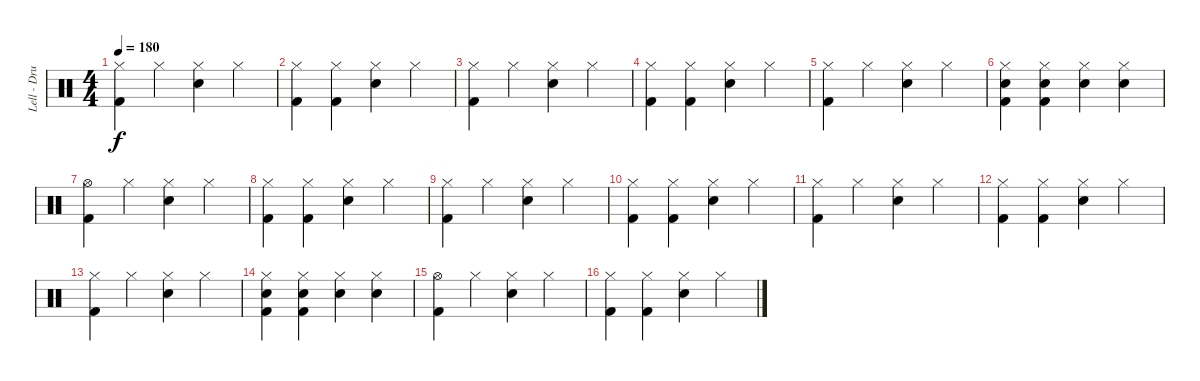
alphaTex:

\track ("Lell - Drums" "Lell - Dru") {instrument percussion}
\staff {score}
\articulation defaults
\ts (4 4)
\tempo 180
\clef neutral
\ks c
("Hi-Hat (closed)" "Kick (hit) 2").4{dy f} "Hi-Hat (closed)".4 ("Hi-Hat (closed)" "Snare (hit) 2").4 "Hi-Hat (closed)".4 |
("Hi-Hat (closed)" "Kick (hit) 2").4 ("Hi-Hat (closed)" "Kick (hit) 2").4 ("Hi-Hat (closed)" "Snare (hit) 2").4 "Hi-Hat (closed)".4 |
("Hi-Hat (closed)" "Kick (hit) 2").4 "Hi-Hat (closed)".4 ("Hi-Hat (closed)" "Snare (hit) 2").4 "Hi-Hat (closed)".4 |
("Hi-Hat (closed)" "Kick (hit) 2").4 ("Hi-Hat (closed)" "Kick (hit) 2").4 ("Hi-Hat (closed)" "Snare (hit) 2").4 "Hi-Hat (closed)".4 |
("Hi-Hat (closed)" "Kick (hit) 2").4 "Hi-Hat (closed)".4 ("Hi-Hat (closed)" "Snare (hit) 2").4 "Hi-Hat (closed)".4 |
("Hi-Hat (closed)" "Snare (hit) 2" "Kick (hit) 2").4 ("Hi-Hat (closed)" "Snare (hit) 2" "Kick (hit) 2").4 ("Hi-Hat (closed)" "Snare (hit) 2").4 ("Hi-Hat (closed)" "Snare (hit) 2").4 |
("Hi-Hat (open)" "Kick (hit) 2").4 "Hi-Hat (closed)".4 ("Hi-Hat (closed)" "Snare (hit) 2").4 "Hi-Hat (closed)".4 |
("Hi-Hat (closed)" "Kick (hit) 2").4 ("Hi-Hat (closed)" "Kick (hit) 2").4 ("Hi-Hat (closed)" "Snare (hit) 2").4 "Hi-Hat (closed)".4 |
("Hi-Hat (closed)" "Kick (hit) 2").4 "Hi-Hat (closed)".4 ("Hi-Hat (closed)" "Snare (hit) 2").4 "Hi-Hat (closed)".4 |
("Hi-Hat (closed)" "Kick (hit) 2").4 ("Hi-Hat (closed)" "Kick (hit) 2").4 ("Hi-Hat (closed)" "Snare (hit) 2").4 "Hi-Hat (closed)".4 |
("Hi-Hat (closed)" "Kick (hit) 2").4 "Hi-Hat (closed)".4 ("Hi-Hat (closed)" "Snare (hit) 2").4 "Hi-Hat (closed)".4 |
("Hi-Hat (closed)" "Kick (hit) 2").4 ("Hi-Hat (closed)" "Kick (hit) 2").4 ("Hi-Hat (closed)" "Snare (hit) 2").4 "Hi-Hat (closed)".4 |
("Hi-Hat (closed)" "Kick (hit) 2").4 "Hi-Hat (closed)".4 ("Hi-Hat (closed)" "Snare (hit) 2").4 "Hi-Hat (closed)".4 |
("Hi-Hat (closed)" "Snare (hit) 2" "Kick (hit) 2").4 ("Hi-Hat (closed)" "Snare (hit) 2" "Kick (hit) 2").4 ("Hi-Hat (closed)" "Snare (hit) 2").4 ("Hi-Hat (closed)" "Snare (hit) 2").4 |
("Hi-Hat (open)" "Kick (hit) 2").4 "Hi-Hat (closed)".4 ("Hi-Hat (closed)" "Snare (hit) 2").4 "Hi-Hat (closed)".4 |
("Hi-Hat (closed)" "Kick (hit) 2").4 ("Hi-Hat (closed)" "Kick (hit) 2").4 ("Hi-Hat (closed)" "Snare (hit) 2").4 "Hi-Hat (closed)".4
